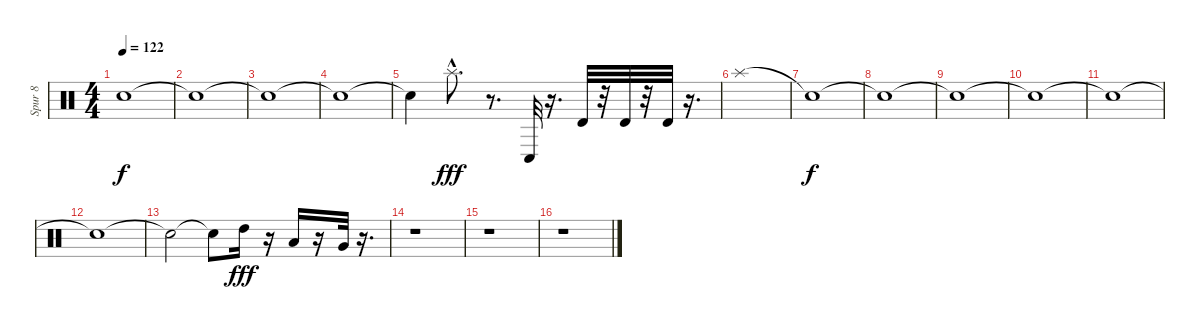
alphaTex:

\track ("Spur 8" "Spur 8") {instrument percussion}
\staff {score}
\articulation defaults
\ts (4 4)
\tempo 122
\clef neutral
\ks c "Snare (hit)"{t}.1{dy f}
|
"Snare (hit)"{t}.1 |
"Snare (hit)"{t}.1 |
"Snare (hit)"{t}.1 |
"Snare (hit)"{t}.4 "Splash (hit)"{hac}.8{d dy fff} r.8{d} "Conga low (hit)".32 r.16{d} "Timbale high (hit)".32 r.32 "Timbale high (hit)".32 r.32 "Timbale high (hit)".32 r.16{d} |
"Splash (hit)".1 |
"Snare (hit)"{t}.1{dy f} |
"Snare (hit)"{t}.1 |
"Snare (hit)"{t}.1 |
"Snare (hit)"{t}.1 |
"Snare (hit)"{t}.1 |
"Snare (hit)"{t}.1 |
"Snare (hit)"{t}.2 "Snare (hit)"{t}.8 "High Tom (hit)".16{dy fff} r.16 "Low Tom (hit)".16 r.16 "Very Low Tom (hit)".32 r.16{d} |
r.1 |
r.1 |
r.1
